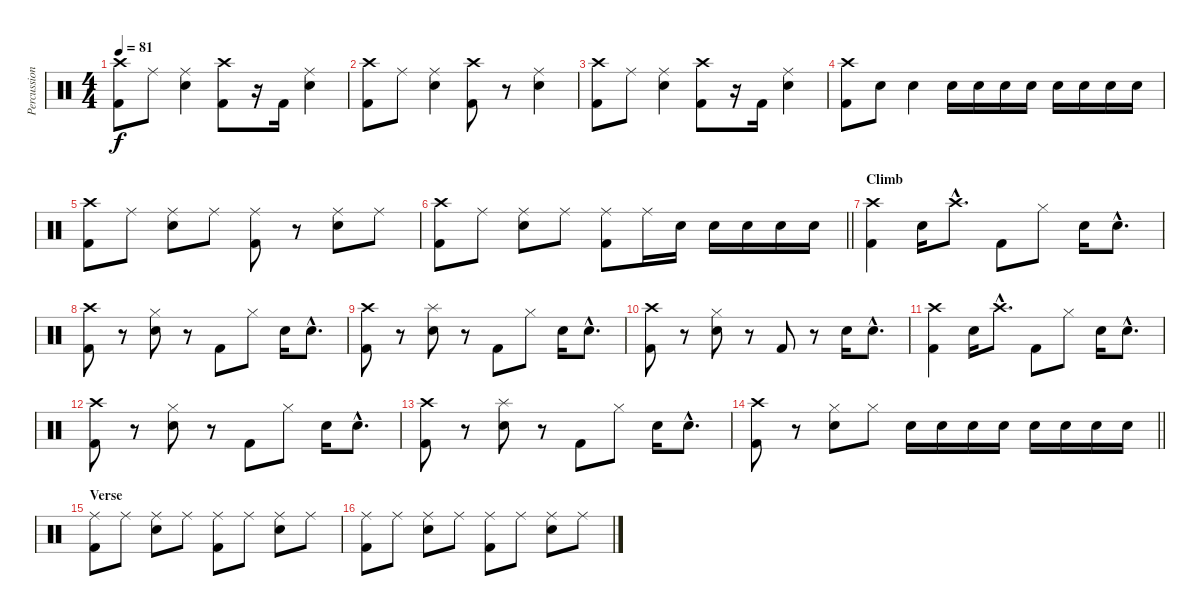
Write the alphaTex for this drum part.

\track ("Percussion" "Percussion") {instrument percussion}
\staff {score}
\articulation defaults
\ts (4 4)
\tempo 81
\clef neutral
\ks c
("Crash high (hit)" "Kick (hit) 2").8{dy f} "Ride (middle)".8 ("Ride (middle)" "Snare (hit) 2").4 ("Crash high (hit)" "Kick (hit) 2").8 r.16 "Kick (hit) 2".16 ("Ride (middle)" "Snare (hit) 2").4 |
("Crash high (hit)" "Kick (hit) 2").8 "Ride (middle)".8 ("Ride (middle)" "Snare (hit) 2").4 ("Crash high (hit)" "Kick (hit) 2").8 r.8 ("Ride (middle)" "Snare (hit) 2").4 |
("Crash high (hit)" "Kick (hit) 2").8 "Ride (middle)".8 ("Ride (middle)" "Snare (hit) 2").4 ("Crash high (hit)" "Kick (hit) 2").8 r.16 "Kick (hit) 2".16 ("Ride (middle)" "Snare (hit) 2").4 |
("Crash high (hit)" "Kick (hit) 2").8 "Snare (hit) 2".8 "Snare (hit) 2".4 "Snare (hit) 2".16 "Snare (hit) 2".16 "Snare (hit) 2".16 "Snare (hit) 2".16 "Snare (hit) 2".16 "Snare (hit) 2".16 "Snare (hit) 2".16 "Snare (hit) 2".16 |
("Crash high (hit)" "Kick (hit) 2").8 "Ride (middle)".8 ("Ride (middle)" "Snare (hit) 2").8 "Ride (middle)".8 ("Ride (middle)" "Kick (hit) 2").8 r.8 ("Ride (middle)" "Snare (hit) 2").8 "Ride (middle)".8 |
\barLineRight lightlight
("Crash high (hit)" "Kick (hit) 2").8 "Ride (middle)".8 ("Ride (middle)" "Snare (hit) 2").8 "Ride (middle)".8 ("Ride (middle)" "Kick (hit) 2").8 "Ride (middle)".16 "Snare (hit) 2".16 "Snare (hit) 2".16 "Snare (hit) 2".16 "Snare (hit) 2".16 "Snare (hit) 2".16 |
\section ("" "Climb")
("Crash high (hit)" "Kick (hit) 2").4 "Snare (hit) 2".16 "Crash high (hit)"{hac}.8{d} "Kick (hit) 2".8 "Hi-Hat (closed)".8 "Snare (hit) 2".16 "Snare (hit) 2"{hac}.8{d} |
("Crash high (hit)" "Kick (hit) 2").8 r.8 ("Hi-Hat (closed)" "Snare (hit) 2").8 r.8 "Kick (hit) 2".8 "Hi-Hat (closed)".8 "Snare (hit) 2".16 "Snare (hit) 2"{hac}.8{d} |
("Crash high (hit)" "Kick (hit) 2").8 r.8 ("Splash (hit)" "Snare (hit) 2").8 r.8 "Kick (hit) 2".8 "Hi-Hat (closed)".8 "Snare (hit) 2".16 "Snare (hit) 2"{hac}.8{d} |
("Crash high (hit)" "Kick (hit) 2").8 r.8 ("Hi-Hat (closed)" "Snare (hit) 2").8 r.8 "Kick (hit) 2".8 r.8 "Snare (hit) 2".16 "Snare (hit) 2"{hac}.8{d} |
("Crash high (hit)" "Kick (hit) 2").4 "Snare (hit) 2".16 "Crash high (hit)"{hac}.8{d} "Kick (hit) 2".8 "Hi-Hat (closed)".8 "Snare (hit) 2".16 "Snare (hit) 2"{hac}.8{d} |
("Crash high (hit)" "Kick (hit) 2").8 r.8 ("Hi-Hat (closed)" "Snare (hit) 2").8 r.8 "Kick (hit) 2".8 "Hi-Hat (closed)".8 "Snare (hit) 2".16 "Snare (hit) 2"{hac}.8{d} |
("Crash high (hit)" "Kick (hit) 2").8 r.8 ("Splash (hit)" "Snare (hit) 2").8 r.8 "Kick (hit) 2".8 "Hi-Hat (closed)".8 "Snare (hit) 2".16 "Snare (hit) 2"{hac}.8{d} |
\barLineRight lightlight
("Crash high (hit)" "Kick (hit) 2").8 r.8 ("Hi-Hat (closed)" "Snare (hit) 2").8 "Hi-Hat (closed)".8 "Snare (hit) 2".16 "Snare (hit) 2".16 "Snare (hit) 2".16 "Snare (hit) 2".16 "Snare (hit) 2".16 "Snare (hit) 2".16 "Snare (hit) 2".16 "Snare (hit) 2".16 |
\section ("" "Verse")
("Ride (middle)" "Kick (hit) 2").8 "Ride (middle)".8 ("Ride (middle)" "Snare (hit) 2").8 "Ride (middle)".8 ("Ride (middle)" "Kick (hit) 2").8 "Ride (middle)".8 ("Ride (middle)" "Snare (hit) 2").8 "Ride (middle)".8 |
("Ride (middle)" "Kick (hit) 2").8 "Ride (middle)".8 ("Ride (middle)" "Snare (hit) 2").8 "Ride (middle)".8 ("Ride (middle)" "Kick (hit) 2").8 "Ride (middle)".8 ("Ride (middle)" "Snare (hit) 2").8 "Ride (middle)".8
